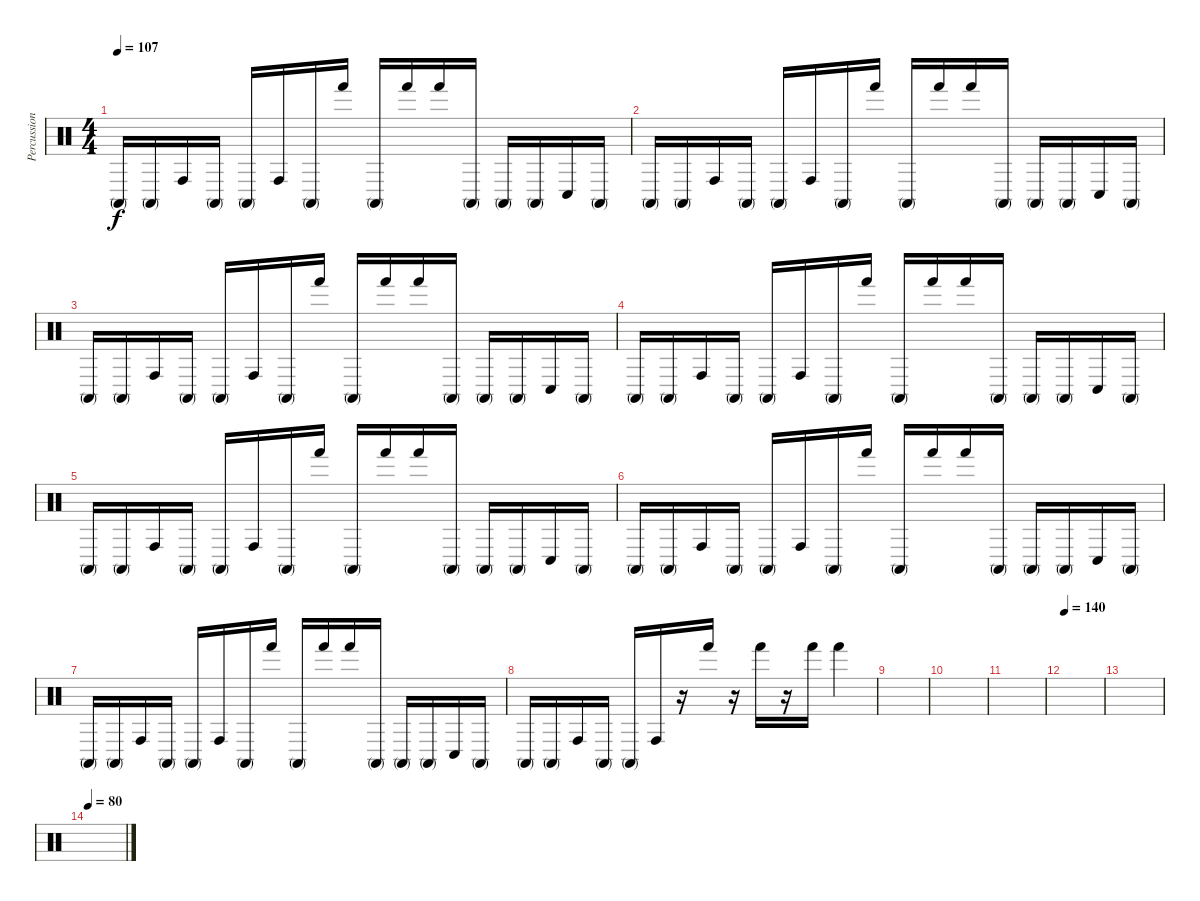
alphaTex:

\track ("Percussioni" "Percussion") {instrument percussion}
\staff {score}
\articulation defaults
\ts (4 4)
\tempo 107
\clef neutral
\ks c "Conga high (mute)".16{dy f} "Conga high (mute)".16 "Conga high (hit)".16 "Conga high (mute)".16 "Conga high (mute)".16 "Conga high (hit)".16 "Conga high (mute)".16 "Hand (hit)".16 "Conga high (mute)".16 "Hand (hit)".16 "Hand (hit)".16 "Conga high (mute)".16 "Conga high (mute)".16 "Conga high (mute)".16 "Conga low (hit)".16 "Conga high (mute)".16
|
"Conga high (mute)".16 "Conga high (mute)".16 "Conga high (hit)".16 "Conga high (mute)".16 "Conga high (mute)".16 "Conga high (hit)".16 "Conga high (mute)".16 "Hand (hit)".16 "Conga high (mute)".16 "Hand (hit)".16 "Hand (hit)".16 "Conga high (mute)".16 "Conga high (mute)".16 "Conga high (mute)".16 "Conga low (hit)".16 "Conga high (mute)".16 |
"Conga high (mute)".16 "Conga high (mute)".16 "Conga high (hit)".16 "Conga high (mute)".16 "Conga high (mute)".16 "Conga high (hit)".16 "Conga high (mute)".16 "Hand (hit)".16 "Conga high (mute)".16 "Hand (hit)".16 "Hand (hit)".16 "Conga high (mute)".16 "Conga high (mute)".16 "Conga high (mute)".16 "Conga low (hit)".16 "Conga high (mute)".16 |
"Conga high (mute)".16 "Conga high (mute)".16 "Conga high (hit)".16 "Conga high (mute)".16 "Conga high (mute)".16 "Conga high (hit)".16 "Conga high (mute)".16 "Hand (hit)".16 "Conga high (mute)".16 "Hand (hit)".16 "Hand (hit)".16 "Conga high (mute)".16 "Conga high (mute)".16 "Conga high (mute)".16 "Conga low (hit)".16 "Conga high (mute)".16 |
"Conga high (mute)".16 "Conga high (mute)".16 "Conga high (hit)".16 "Conga high (mute)".16 "Conga high (mute)".16 "Conga high (hit)".16 "Conga high (mute)".16 "Hand (hit)".16 "Conga high (mute)".16 "Hand (hit)".16 "Hand (hit)".16 "Conga high (mute)".16 "Conga high (mute)".16 "Conga high (mute)".16 "Conga low (hit)".16 "Conga high (mute)".16 |
"Conga high (mute)".16 "Conga high (mute)".16 "Conga high (hit)".16 "Conga high (mute)".16 "Conga high (mute)".16 "Conga high (hit)".16 "Conga high (mute)".16 "Hand (hit)".16 "Conga high (mute)".16 "Hand (hit)".16 "Hand (hit)".16 "Conga high (mute)".16 "Conga high (mute)".16 "Conga high (mute)".16 "Conga low (hit)".16 "Conga high (mute)".16 |
"Conga high (mute)".16 "Conga high (mute)".16 "Conga high (hit)".16 "Conga high (mute)".16 "Conga high (mute)".16 "Conga high (hit)".16 "Conga high (mute)".16 "Hand (hit)".16 "Conga high (mute)".16 "Hand (hit)".16 "Hand (hit)".16 "Conga high (mute)".16 "Conga high (mute)".16 "Conga high (mute)".16 "Conga low (hit)".16 "Conga high (mute)".16 |
"Conga high (mute)".16 "Conga high (mute)".16 "Conga high (hit)".16 "Conga high (mute)".16 "Conga high (mute)".16 "Conga high (hit)".16 r.16 "Hand (hit)".16 r.16 "Hand (hit)".16 r.16 "Hand (hit)".16 "Hand (hit)".4 |
|
|
|
\tempo 140
|
|
\tempo 80
